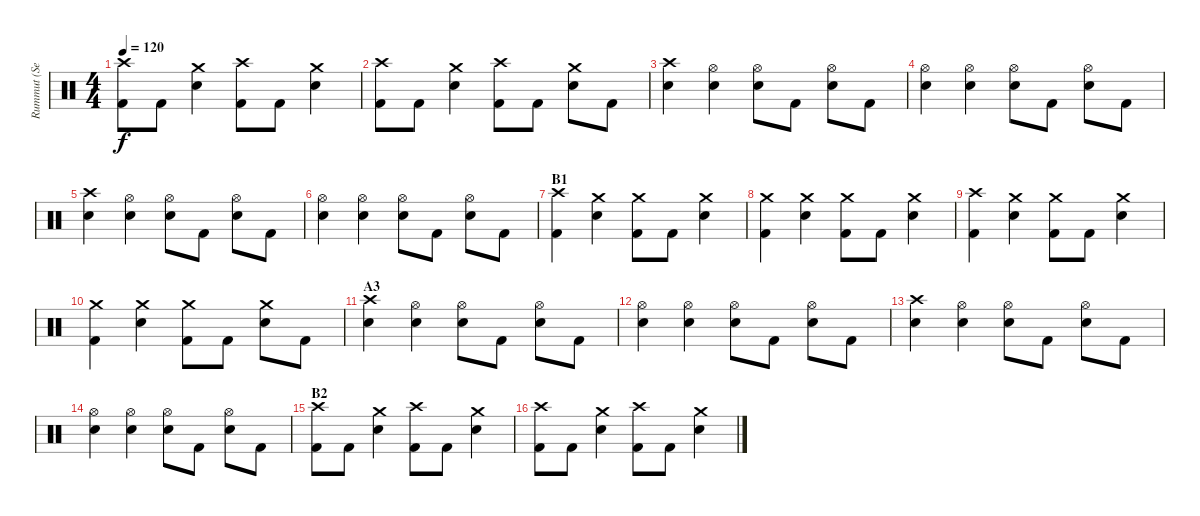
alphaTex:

\track ("Rummut (Seppo Pohjolainen)" "Rummut (Se") {instrument percussion}
\staff {score}
\articulation defaults
\ts (4 4)
\tempo 120
\clef neutral
\ks c
("Crash high (hit)" "Kick (hit) 2").8{dy f} "Kick (hit) 2".8 ("Crash medium (hit)" "Electric Snare (hit)").4 ("Crash high (hit)" "Kick (hit) 2").8 "Kick (hit) 2".8 ("Crash medium (hit)" "Electric Snare (hit)").4 |
("Crash high (hit)" "Kick (hit) 2").8 "Kick (hit) 2".8 ("Crash medium (hit)" "Electric Snare (hit)").4 ("Crash high (hit)" "Kick (hit) 2").8 "Kick (hit) 2".8 ("Crash medium (hit)" "Electric Snare (hit)").8 "Kick (hit) 2".8 |
("Crash high (hit)" "Electric Snare (hit)").4 ("Hi-Hat (open)" "Electric Snare (hit)").4 ("Hi-Hat (open)" "Electric Snare (hit)").8 "Kick (hit) 2".8 ("Hi-Hat (open)" "Electric Snare (hit)").8 "Kick (hit) 2".8 |
("Hi-Hat (open)" "Electric Snare (hit)").4 ("Hi-Hat (open)" "Electric Snare (hit)").4 ("Hi-Hat (open)" "Electric Snare (hit)").8 "Kick (hit) 2".8 ("Hi-Hat (open)" "Electric Snare (hit)").8 "Kick (hit) 2".8 |
("Crash high (hit)" "Electric Snare (hit)").4 ("Hi-Hat (open)" "Electric Snare (hit)").4 ("Hi-Hat (open)" "Electric Snare (hit)").8 "Kick (hit) 2".8 ("Hi-Hat (open)" "Electric Snare (hit)").8 "Kick (hit) 2".8 |
("Hi-Hat (open)" "Electric Snare (hit)").4 ("Hi-Hat (open)" "Electric Snare (hit)").4 ("Hi-Hat (open)" "Electric Snare (hit)").8 "Kick (hit) 2".8 ("Hi-Hat (open)" "Electric Snare (hit)").8 "Kick (hit) 2".8 |
\section ("" "B1")
("Crash high (hit)" "Kick (hit) 2").4 ("Crash medium (hit)" "Electric Snare (hit)").4 ("Crash medium (hit)" "Kick (hit) 2").8 "Kick (hit) 2".8 ("Crash medium (hit)" "Electric Snare (hit)").4 |
("Crash medium (hit)" "Kick (hit) 2").4 ("Crash medium (hit)" "Electric Snare (hit)").4 ("Crash medium (hit)" "Kick (hit) 2").8 "Kick (hit) 2".8 ("Crash medium (hit)" "Electric Snare (hit)").4 |
("Crash high (hit)" "Kick (hit) 2").4 ("Crash medium (hit)" "Electric Snare (hit)").4 ("Crash medium (hit)" "Kick (hit) 2").8 "Kick (hit) 2".8 ("Crash medium (hit)" "Electric Snare (hit)").4 |
("Crash medium (hit)" "Kick (hit) 2").4 ("Crash medium (hit)" "Electric Snare (hit)").4 ("Crash medium (hit)" "Kick (hit) 2").8 "Kick (hit) 2".8 ("Crash medium (hit)" "Electric Snare (hit)").8 "Kick (hit) 2".8 |
\section ("" "A3")
("Crash high (hit)" "Electric Snare (hit)").4 ("Hi-Hat (open)" "Electric Snare (hit)").4 ("Hi-Hat (open)" "Electric Snare (hit)").8 "Kick (hit) 2".8 ("Hi-Hat (open)" "Electric Snare (hit)").8 "Kick (hit) 2".8 |
("Hi-Hat (open)" "Electric Snare (hit)").4 ("Hi-Hat (open)" "Electric Snare (hit)").4 ("Hi-Hat (open)" "Electric Snare (hit)").8 "Kick (hit) 2".8 ("Hi-Hat (open)" "Electric Snare (hit)").8 "Kick (hit) 2".8 |
("Crash high (hit)" "Electric Snare (hit)").4 ("Hi-Hat (open)" "Electric Snare (hit)").4 ("Hi-Hat (open)" "Electric Snare (hit)").8 "Kick (hit) 2".8 ("Hi-Hat (open)" "Electric Snare (hit)").8 "Kick (hit) 2".8 |
("Hi-Hat (open)" "Electric Snare (hit)").4 ("Hi-Hat (open)" "Electric Snare (hit)").4 ("Hi-Hat (open)" "Electric Snare (hit)").8 "Kick (hit) 2".8 ("Hi-Hat (open)" "Electric Snare (hit)").8 "Kick (hit) 2".8 |
\section ("" "B2")
("Crash high (hit)" "Kick (hit) 2").8 "Kick (hit) 2".8 ("Crash medium (hit)" "Electric Snare (hit)").4 ("Crash high (hit)" "Kick (hit) 2").8 "Kick (hit) 2".8 ("Crash medium (hit)" "Electric Snare (hit)").4 |
("Crash high (hit)" "Kick (hit) 2").8 "Kick (hit) 2".8 ("Crash medium (hit)" "Electric Snare (hit)").4 ("Crash high (hit)" "Kick (hit) 2").8 "Kick (hit) 2".8 ("Crash medium (hit)" "Electric Snare (hit)").4
